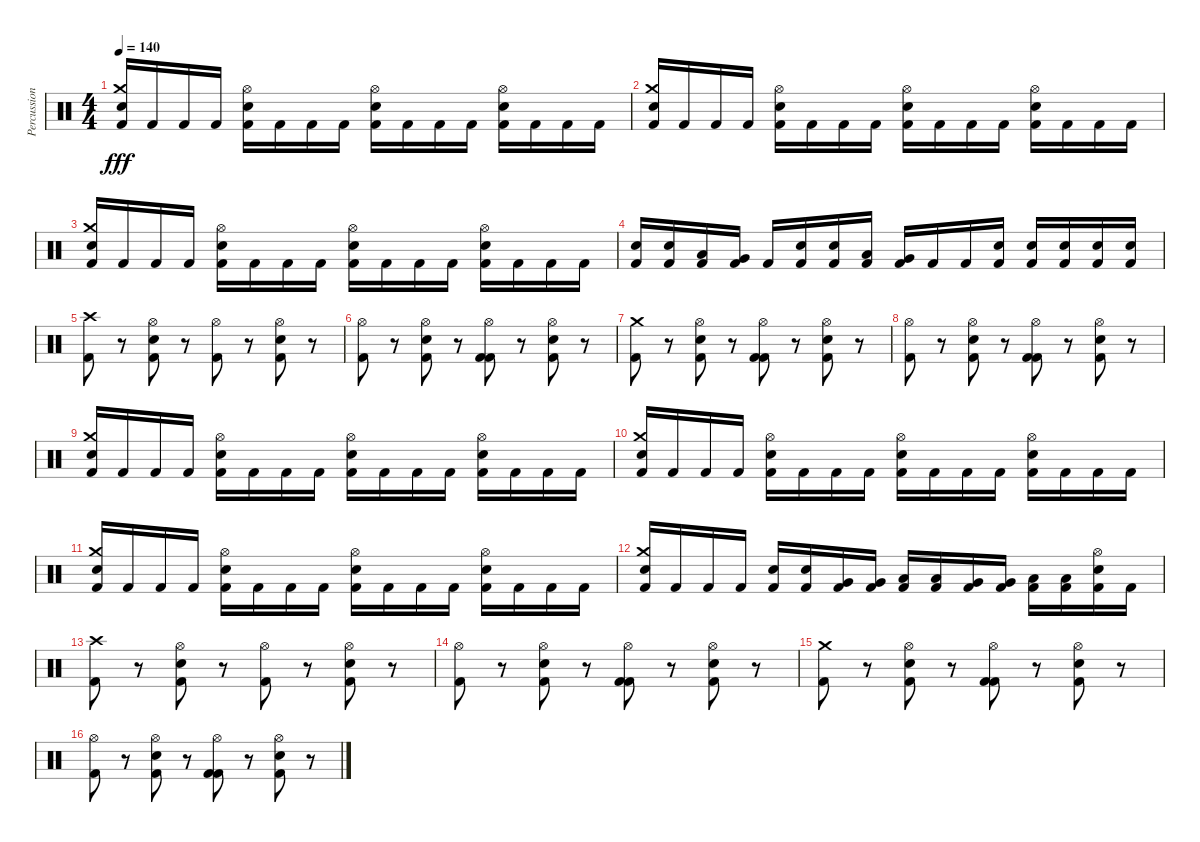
\track ("Percussion" "Percussion") {instrument percussion}
\staff {score}
\articulation defaults
\ts (4 4)
\tempo 140
\clef neutral
\ks c
("Electric Snare (hit)" "Crash medium (hit)" "Kick (hit) 2").16{dy fff} "Kick (hit) 2".16 "Kick (hit) 2".16 "Kick (hit) 2".16 ("Electric Snare (hit)" "Hi-Hat (open)" "Kick (hit) 2").16 "Kick (hit) 2".16 "Kick (hit) 2".16 "Kick (hit) 2".16 ("Electric Snare (hit)" "Hi-Hat (open)" "Kick (hit) 2").16 "Kick (hit) 2".16 "Kick (hit) 2".16 "Kick (hit) 2".16 ("Electric Snare (hit)" "Hi-Hat (open)" "Kick (hit) 2").16 "Kick (hit) 2".16 "Kick (hit) 2".16 "Kick (hit) 2".16 |
("Electric Snare (hit)" "Crash medium (hit)" "Kick (hit) 2").16 "Kick (hit) 2".16 "Kick (hit) 2".16 "Kick (hit) 2".16 ("Electric Snare (hit)" "Hi-Hat (open)" "Kick (hit) 2").16 "Kick (hit) 2".16 "Kick (hit) 2".16 "Kick (hit) 2".16 ("Electric Snare (hit)" "Hi-Hat (open)" "Kick (hit) 2").16 "Kick (hit) 2".16 "Kick (hit) 2".16 "Kick (hit) 2".16 ("Electric Snare (hit)" "Hi-Hat (open)" "Kick (hit) 2").16 "Kick (hit) 2".16 "Kick (hit) 2".16 "Kick (hit) 2".16 |
("Electric Snare (hit)" "Crash medium (hit)" "Kick (hit) 2").16 "Kick (hit) 2".16 "Kick (hit) 2".16 "Kick (hit) 2".16 ("Electric Snare (hit)" "Hi-Hat (open)" "Kick (hit) 2").16 "Kick (hit) 2".16 "Kick (hit) 2".16 "Kick (hit) 2".16 ("Electric Snare (hit)" "Hi-Hat (open)" "Kick (hit) 2").16 "Kick (hit) 2".16 "Kick (hit) 2".16 "Kick (hit) 2".16 ("Electric Snare (hit)" "Hi-Hat (open)" "Kick (hit) 2").16 "Kick (hit) 2".16 "Kick (hit) 2".16 "Kick (hit) 2".16 |
("Electric Snare (hit)" "Kick (hit) 2").16 ("Electric Snare (hit)" "Kick (hit) 2").16 ("Low Tom (hit)" "Kick (hit) 2").16 ("Very Low Tom (hit)" "Kick (hit) 2").16 "Kick (hit) 2".16 ("Electric Snare (hit)" "Kick (hit) 2").16 ("Electric Snare (hit)" "Kick (hit) 2").16 ("Low Tom (hit)" "Kick (hit) 2").16 ("Very Low Tom (hit)" "Kick (hit) 2").16 "Kick (hit) 2".16 "Kick (hit) 2".16 ("Electric Snare (hit)" "Kick (hit) 2").16 ("Electric Snare (hit)" "Kick (hit) 2").16 ("Electric Snare (hit)" "Kick (hit) 2").16 ("Electric Snare (hit)" "Kick (hit) 2").16 ("Electric Snare (hit)" "Kick (hit) 2").16 |
("Crash high (hit)" "Kick (hit) 2").8 r.8 ("Kick (hit) 2" "Hi-Hat (open)" "Electric Snare (hit)").8 r.8 ("Hi-Hat (open)" "Kick (hit) 2").8 r.8 ("Kick (hit) 2" "Hi-Hat (open)" "Electric Snare (hit)").8 r.8 |
("Hi-Hat (open)" "Kick (hit) 2").8 r.8 ("Kick (hit) 2" "Hi-Hat (open)" "Electric Snare (hit)").8 r.8 ("Kick (hit) 2" "Hi-Hat (open)" "Kick (hit) 2").8 r.8 ("Kick (hit) 2" "Hi-Hat (open)" "Electric Snare (hit)").8 r.8 |
("Crash medium (hit)" "Kick (hit) 2").8 r.8 ("Kick (hit) 2" "Hi-Hat (open)" "Electric Snare (hit)").8 r.8 ("Kick (hit) 2" "Hi-Hat (open)" "Kick (hit) 2").8 r.8 ("Kick (hit) 2" "Hi-Hat (open)" "Electric Snare (hit)").8 r.8 |
("Hi-Hat (open)" "Kick (hit) 2").8 r.8 ("Kick (hit) 2" "Hi-Hat (open)" "Electric Snare (hit)").8 r.8 ("Kick (hit) 2" "Hi-Hat (open)" "Kick (hit) 2").8 r.8 ("Kick (hit) 2" "Hi-Hat (open)" "Electric Snare (hit)").8 r.8 |
("Electric Snare (hit)" "Crash medium (hit)" "Kick (hit) 2").16 "Kick (hit) 2".16 "Kick (hit) 2".16 "Kick (hit) 2".16 ("Electric Snare (hit)" "Hi-Hat (open)" "Kick (hit) 2").16 "Kick (hit) 2".16 "Kick (hit) 2".16 "Kick (hit) 2".16 ("Electric Snare (hit)" "Hi-Hat (open)" "Kick (hit) 2").16 "Kick (hit) 2".16 "Kick (hit) 2".16 "Kick (hit) 2".16 ("Electric Snare (hit)" "Hi-Hat (open)" "Kick (hit) 2").16 "Kick (hit) 2".16 "Kick (hit) 2".16 "Kick (hit) 2".16 |
("Electric Snare (hit)" "Crash medium (hit)" "Kick (hit) 2").16 "Kick (hit) 2".16 "Kick (hit) 2".16 "Kick (hit) 2".16 ("Electric Snare (hit)" "Hi-Hat (open)" "Kick (hit) 2").16 "Kick (hit) 2".16 "Kick (hit) 2".16 "Kick (hit) 2".16 ("Electric Snare (hit)" "Hi-Hat (open)" "Kick (hit) 2").16 "Kick (hit) 2".16 "Kick (hit) 2".16 "Kick (hit) 2".16 ("Electric Snare (hit)" "Hi-Hat (open)" "Kick (hit) 2").16 "Kick (hit) 2".16 "Kick (hit) 2".16 "Kick (hit) 2".16 |
("Electric Snare (hit)" "Crash medium (hit)" "Kick (hit) 2").16 "Kick (hit) 2".16 "Kick (hit) 2".16 "Kick (hit) 2".16 ("Electric Snare (hit)" "Hi-Hat (open)" "Kick (hit) 2").16 "Kick (hit) 2".16 "Kick (hit) 2".16 "Kick (hit) 2".16 ("Electric Snare (hit)" "Hi-Hat (open)" "Kick (hit) 2").16 "Kick (hit) 2".16 "Kick (hit) 2".16 "Kick (hit) 2".16 ("Electric Snare (hit)" "Hi-Hat (open)" "Kick (hit) 2").16 "Kick (hit) 2".16 "Kick (hit) 2".16 "Kick (hit) 2".16 |
("Electric Snare (hit)" "Crash medium (hit)" "Kick (hit) 2").16 "Kick (hit) 2".16 "Kick (hit) 2".16 "Kick (hit) 2".16 ("Electric Snare (hit)" "Kick (hit) 2").16 ("Electric Snare (hit)" "Kick (hit) 2").16 ("Very Low Tom (hit)" "Kick (hit) 2").16 ("Very Low Tom (hit)" "Kick (hit) 2").16 ("Low Tom (hit)" "Kick (hit) 2").16 ("Low Tom (hit)" "Kick (hit) 2").16 ("Very Low Tom (hit)" "Kick (hit) 2").16 ("Very Low Tom (hit)" "Kick (hit) 2").16 ("Low Tom (hit)" "Kick (hit) 2").16 ("Low Tom (hit)" "Kick (hit) 2").16 ("Hi-Hat (open)" "Electric Snare (hit)" "Kick (hit) 2").16 "Kick (hit) 2".16 |
("Crash high (hit)" "Kick (hit) 2").8 r.8 ("Kick (hit) 2" "Hi-Hat (open)" "Electric Snare (hit)").8 r.8 ("Hi-Hat (open)" "Kick (hit) 2").8 r.8 ("Kick (hit) 2" "Hi-Hat (open)" "Electric Snare (hit)").8 r.8 |
("Hi-Hat (open)" "Kick (hit) 2").8 r.8 ("Kick (hit) 2" "Hi-Hat (open)" "Electric Snare (hit)").8 r.8 ("Kick (hit) 2" "Hi-Hat (open)" "Kick (hit) 2").8 r.8 ("Kick (hit) 2" "Hi-Hat (open)" "Electric Snare (hit)").8 r.8 |
("Crash medium (hit)" "Kick (hit) 2").8 r.8 ("Kick (hit) 2" "Hi-Hat (open)" "Electric Snare (hit)").8 r.8 ("Kick (hit) 2" "Hi-Hat (open)" "Kick (hit) 2").8 r.8 ("Kick (hit) 2" "Hi-Hat (open)" "Electric Snare (hit)").8 r.8 |
("Hi-Hat (open)" "Kick (hit) 2").8 r.8 ("Kick (hit) 2" "Hi-Hat (open)" "Electric Snare (hit)").8 r.8 ("Kick (hit) 2" "Hi-Hat (open)" "Kick (hit) 2").8 r.8 ("Kick (hit) 2" "Hi-Hat (open)" "Electric Snare (hit)").8 r.8
